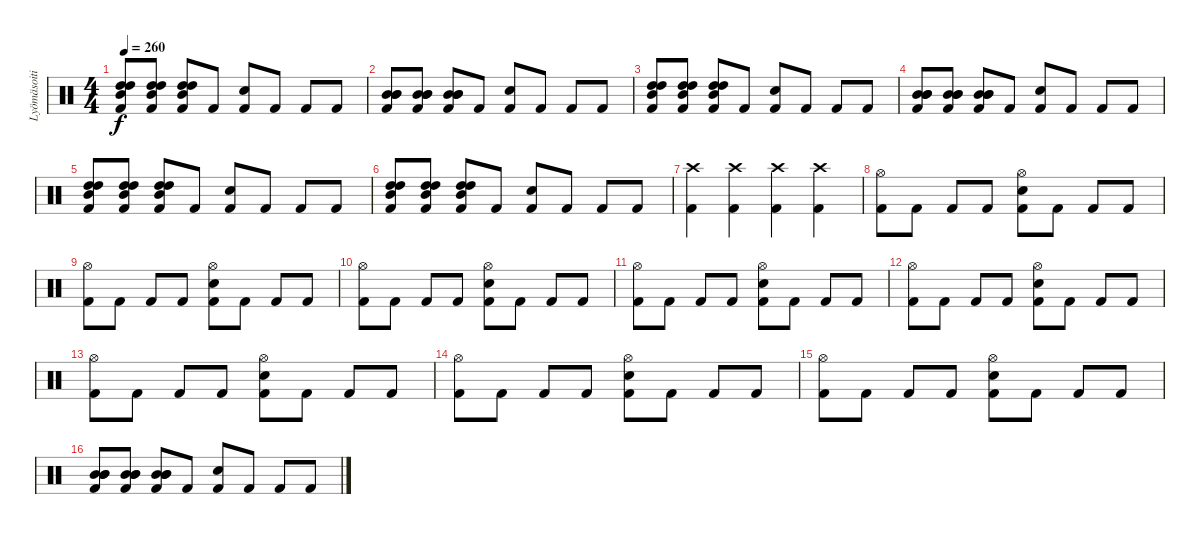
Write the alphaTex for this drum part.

\track ("Lyömäsoitin" "Lyömäsoiti") {instrument percussion}
\staff {score}
\articulation defaults
\ts (4 4)
\tempo 260
\clef neutral
\ks c
("High Tom (hit)" "High Tom (hit)" "Mid Tom (hit)" "Kick (hit) 2").8{dy f} ("High Tom (hit)" "High Tom (hit)" "Mid Tom (hit)" "Kick (hit) 2").8 ("High Tom (hit)" "High Tom (hit)" "Mid Tom (hit)" "Kick (hit) 2").8 "Kick (hit) 2".8 ("Electric Snare (hit)" "Kick (hit) 2").8 "Kick (hit) 2".8 "Kick (hit) 2".8 "Kick (hit) 2".8 |
("Mid Tom (hit)" "Mid Tom (hit)" "Mid Tom (hit)" "Kick (hit) 2").8 ("Mid Tom (hit)" "Mid Tom (hit)" "Mid Tom (hit)" "Kick (hit) 2").8 ("Mid Tom (hit)" "Mid Tom (hit)" "Mid Tom (hit)" "Kick (hit) 2").8 "Kick (hit) 2".8 ("Electric Snare (hit)" "Kick (hit) 2").8 "Kick (hit) 2".8 "Kick (hit) 2".8 "Kick (hit) 2".8 |
("High Tom (hit)" "High Tom (hit)" "Mid Tom (hit)" "Kick (hit) 2").8 ("High Tom (hit)" "High Tom (hit)" "Mid Tom (hit)" "Kick (hit) 2").8 ("High Tom (hit)" "High Tom (hit)" "Mid Tom (hit)" "Kick (hit) 2").8 "Kick (hit) 2".8 ("Electric Snare (hit)" "Kick (hit) 2").8 "Kick (hit) 2".8 "Kick (hit) 2".8 "Kick (hit) 2".8 |
("Mid Tom (hit)" "Mid Tom (hit)" "Mid Tom (hit)" "Kick (hit) 2").8 ("Mid Tom (hit)" "Mid Tom (hit)" "Mid Tom (hit)" "Kick (hit) 2").8 ("Mid Tom (hit)" "Mid Tom (hit)" "Mid Tom (hit)" "Kick (hit) 2").8 "Kick (hit) 2".8 ("Electric Snare (hit)" "Kick (hit) 2").8 "Kick (hit) 2".8 "Kick (hit) 2".8 "Kick (hit) 2".8 |
("High Tom (hit)" "High Tom (hit)" "Mid Tom (hit)" "Kick (hit) 2").8 ("High Tom (hit)" "High Tom (hit)" "Mid Tom (hit)" "Kick (hit) 2").8 ("High Tom (hit)" "High Tom (hit)" "Mid Tom (hit)" "Kick (hit) 2").8 "Kick (hit) 2".8 ("Electric Snare (hit)" "Kick (hit) 2").8 "Kick (hit) 2".8 "Kick (hit) 2".8 "Kick (hit) 2".8 |
("High Tom (hit)" "High Tom (hit)" "Mid Tom (hit)" "Kick (hit) 2").8 ("High Tom (hit)" "High Tom (hit)" "Mid Tom (hit)" "Kick (hit) 2").8 ("High Tom (hit)" "High Tom (hit)" "Mid Tom (hit)" "Kick (hit) 2").8 "Kick (hit) 2".8 ("Electric Snare (hit)" "Kick (hit) 2").8 "Kick (hit) 2".8 "Kick (hit) 2".8 "Kick (hit) 2".8 |
("Crash high (hit)" "Kick (hit) 2").4 ("Crash high (hit)" "Kick (hit) 2").4 ("Crash high (hit)" "Kick (hit) 2").4 ("Crash high (hit)" "Kick (hit) 2").4 |
("Hi-Hat (open)" "Kick (hit) 2").8 "Kick (hit) 2".8 "Kick (hit) 2".8 "Kick (hit) 2".8 ("Hi-Hat (open)" "Electric Snare (hit)" "Kick (hit) 2").8 "Kick (hit) 2".8 "Kick (hit) 2".8 "Kick (hit) 2".8 |
("Hi-Hat (open)" "Kick (hit) 2").8 "Kick (hit) 2".8 "Kick (hit) 2".8 "Kick (hit) 2".8 ("Hi-Hat (open)" "Electric Snare (hit)" "Kick (hit) 2").8 "Kick (hit) 2".8 "Kick (hit) 2".8 "Kick (hit) 2".8 |
("Hi-Hat (open)" "Kick (hit) 2").8 "Kick (hit) 2".8 "Kick (hit) 2".8 "Kick (hit) 2".8 ("Hi-Hat (open)" "Electric Snare (hit)" "Kick (hit) 2").8 "Kick (hit) 2".8 "Kick (hit) 2".8 "Kick (hit) 2".8 |
("Hi-Hat (open)" "Kick (hit) 2").8 "Kick (hit) 2".8 "Kick (hit) 2".8 "Kick (hit) 2".8 ("Hi-Hat (open)" "Electric Snare (hit)" "Kick (hit) 2").8 "Kick (hit) 2".8 "Kick (hit) 2".8 "Kick (hit) 2".8 |
("Hi-Hat (open)" "Kick (hit) 2").8 "Kick (hit) 2".8 "Kick (hit) 2".8 "Kick (hit) 2".8 ("Hi-Hat (open)" "Electric Snare (hit)" "Kick (hit) 2").8 "Kick (hit) 2".8 "Kick (hit) 2".8 "Kick (hit) 2".8 |
("Hi-Hat (open)" "Kick (hit) 2").8 "Kick (hit) 2".8 "Kick (hit) 2".8 "Kick (hit) 2".8 ("Hi-Hat (open)" "Electric Snare (hit)" "Kick (hit) 2").8 "Kick (hit) 2".8 "Kick (hit) 2".8 "Kick (hit) 2".8 |
("Hi-Hat (open)" "Kick (hit) 2").8 "Kick (hit) 2".8 "Kick (hit) 2".8 "Kick (hit) 2".8 ("Hi-Hat (open)" "Electric Snare (hit)" "Kick (hit) 2").8 "Kick (hit) 2".8 "Kick (hit) 2".8 "Kick (hit) 2".8 |
("Hi-Hat (open)" "Kick (hit) 2").8 "Kick (hit) 2".8 "Kick (hit) 2".8 "Kick (hit) 2".8 ("Hi-Hat (open)" "Electric Snare (hit)" "Kick (hit) 2").8 "Kick (hit) 2".8 "Kick (hit) 2".8 "Kick (hit) 2".8 |
("Mid Tom (hit)" "Mid Tom (hit)" "Mid Tom (hit)" "Kick (hit) 2").8 ("Mid Tom (hit)" "Mid Tom (hit)" "Mid Tom (hit)" "Kick (hit) 2").8 ("Mid Tom (hit)" "Mid Tom (hit)" "Mid Tom (hit)" "Kick (hit) 2").8 "Kick (hit) 2".8 ("Electric Snare (hit)" "Kick (hit) 2").8 "Kick (hit) 2".8 "Kick (hit) 2".8 "Kick (hit) 2".8
